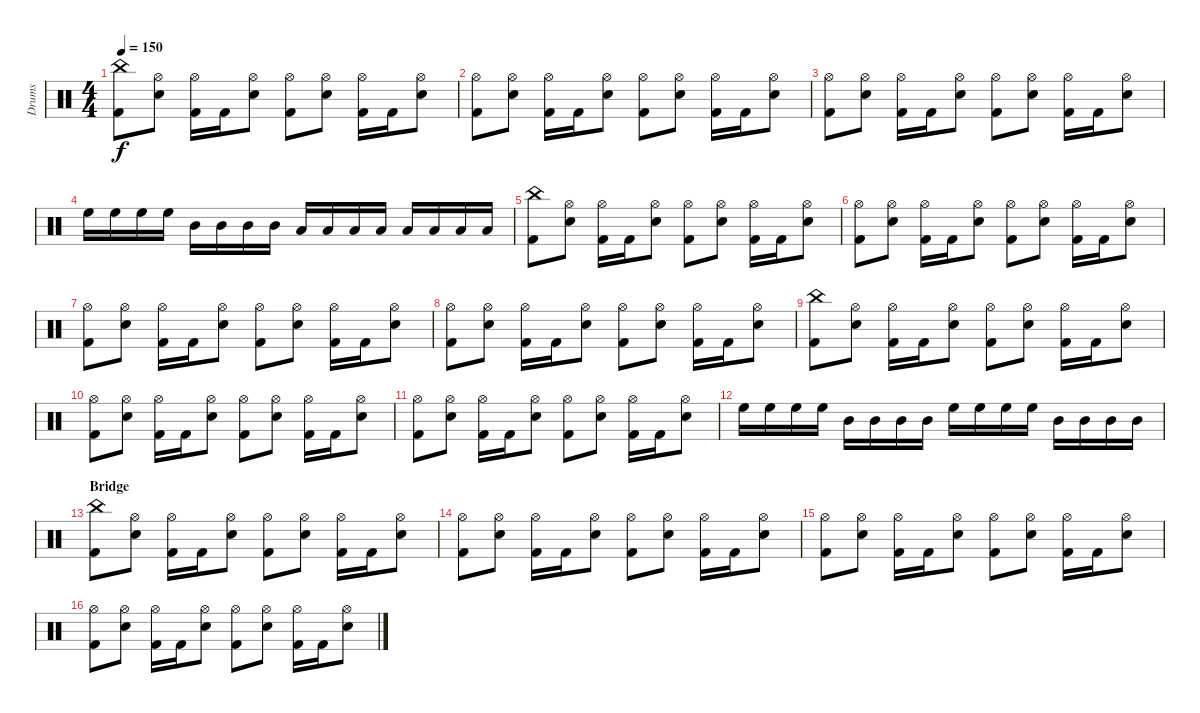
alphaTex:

\track ("Drums" "Drums") {instrument percussion}
\staff {score}
\articulation defaults
\ts (4 4)
\tempo 150
\clef neutral
\ks c
("China (hit)" "Kick (hit) 2").8{dy f} ("Hi-Hat (open)" "Snare (hit) 2").8 ("Hi-Hat (open)" "Kick (hit) 2").16 "Kick (hit) 2".16 ("Hi-Hat (open)" "Snare (hit) 2").8 ("Hi-Hat (open)" "Kick (hit) 2").8 ("Hi-Hat (open)" "Snare (hit) 2").8 ("Hi-Hat (open)" "Kick (hit) 2").16 "Kick (hit) 2".16 ("Hi-Hat (open)" "Snare (hit) 2").8 |
("Hi-Hat (open)" "Kick (hit) 2").8 ("Hi-Hat (open)" "Snare (hit) 2").8 ("Hi-Hat (open)" "Kick (hit) 2").16 "Kick (hit) 2".16 ("Hi-Hat (open)" "Snare (hit) 2").8 ("Hi-Hat (open)" "Kick (hit) 2").8 ("Hi-Hat (open)" "Snare (hit) 2").8 ("Hi-Hat (open)" "Kick (hit) 2").16 "Kick (hit) 2".16 ("Hi-Hat (open)" "Snare (hit) 2").8 |
("Hi-Hat (open)" "Kick (hit) 2").8 ("Hi-Hat (open)" "Snare (hit) 2").8 ("Hi-Hat (open)" "Kick (hit) 2").16 "Kick (hit) 2".16 ("Hi-Hat (open)" "Snare (hit) 2").8 ("Hi-Hat (open)" "Kick (hit) 2").8 ("Hi-Hat (open)" "Snare (hit) 2").8 ("Hi-Hat (open)" "Kick (hit) 2").16 "Kick (hit) 2".16 ("Hi-Hat (open)" "Snare (hit) 2").8 |
"High Floor Tom (hit)".16 "High Floor Tom (hit)".16 "High Floor Tom (hit)".16 "High Floor Tom (hit)".16 "Mid Tom (hit)".16 "Mid Tom (hit)".16 "Mid Tom (hit)".16 "Mid Tom (hit)".16 "Low Tom (hit)".16 "Low Tom (hit)".16 "Low Tom (hit)".16 "Low Tom (hit)".16 "Low Floor Tom (hit)".16 "Low Floor Tom (hit)".16 "Low Floor Tom (hit)".16 "Low Floor Tom (hit)".16 |
("China (hit)" "Kick (hit) 2").8 ("Hi-Hat (open)" "Snare (hit) 2").8 ("Hi-Hat (open)" "Kick (hit) 2").16 "Kick (hit) 2".16 ("Hi-Hat (open)" "Snare (hit) 2").8 ("Hi-Hat (open)" "Kick (hit) 2").8 ("Hi-Hat (open)" "Snare (hit) 2").8 ("Hi-Hat (open)" "Kick (hit) 2").16 "Kick (hit) 2".16 ("Hi-Hat (open)" "Snare (hit) 2").8 |
("Hi-Hat (open)" "Kick (hit) 2").8 ("Hi-Hat (open)" "Snare (hit) 2").8 ("Hi-Hat (open)" "Kick (hit) 2").16 "Kick (hit) 2".16 ("Hi-Hat (open)" "Snare (hit) 2").8 ("Hi-Hat (open)" "Kick (hit) 2").8 ("Hi-Hat (open)" "Snare (hit) 2").8 ("Hi-Hat (open)" "Kick (hit) 2").16 "Kick (hit) 2".16 ("Hi-Hat (open)" "Snare (hit) 2").8 |
("Hi-Hat (open)" "Kick (hit) 2").8 ("Hi-Hat (open)" "Snare (hit) 2").8 ("Hi-Hat (open)" "Kick (hit) 2").16 "Kick (hit) 2".16 ("Hi-Hat (open)" "Snare (hit) 2").8 ("Hi-Hat (open)" "Kick (hit) 2").8 ("Hi-Hat (open)" "Snare (hit) 2").8 ("Hi-Hat (open)" "Kick (hit) 2").16 "Kick (hit) 2".16 ("Hi-Hat (open)" "Snare (hit) 2").8 |
("Hi-Hat (open)" "Kick (hit) 2").8 ("Hi-Hat (open)" "Snare (hit) 2").8 ("Hi-Hat (open)" "Kick (hit) 2").16 "Kick (hit) 2".16 ("Hi-Hat (open)" "Snare (hit) 2").8 ("Hi-Hat (open)" "Kick (hit) 2").8 ("Hi-Hat (open)" "Snare (hit) 2").8 ("Hi-Hat (open)" "Kick (hit) 2").16 "Kick (hit) 2".16 ("Hi-Hat (open)" "Snare (hit) 2").8 |
("China (hit)" "Kick (hit) 2").8 ("Hi-Hat (open)" "Snare (hit) 2").8 ("Hi-Hat (open)" "Kick (hit) 2").16 "Kick (hit) 2".16 ("Hi-Hat (open)" "Snare (hit) 2").8 ("Hi-Hat (open)" "Kick (hit) 2").8 ("Hi-Hat (open)" "Snare (hit) 2").8 ("Hi-Hat (open)" "Kick (hit) 2").16 "Kick (hit) 2".16 ("Hi-Hat (open)" "Snare (hit) 2").8 |
("Hi-Hat (open)" "Kick (hit) 2").8 ("Hi-Hat (open)" "Snare (hit) 2").8 ("Hi-Hat (open)" "Kick (hit) 2").16 "Kick (hit) 2".16 ("Hi-Hat (open)" "Snare (hit) 2").8 ("Hi-Hat (open)" "Kick (hit) 2").8 ("Hi-Hat (open)" "Snare (hit) 2").8 ("Hi-Hat (open)" "Kick (hit) 2").16 "Kick (hit) 2".16 ("Hi-Hat (open)" "Snare (hit) 2").8 |
("Hi-Hat (open)" "Kick (hit) 2").8 ("Hi-Hat (open)" "Snare (hit) 2").8 ("Hi-Hat (open)" "Kick (hit) 2").16 "Kick (hit) 2".16 ("Hi-Hat (open)" "Snare (hit) 2").8 ("Hi-Hat (open)" "Kick (hit) 2").8 ("Hi-Hat (open)" "Snare (hit) 2").8 ("Hi-Hat (open)" "Kick (hit) 2").16 "Kick (hit) 2".16 ("Hi-Hat (open)" "Snare (hit) 2").8 |
"High Floor Tom (hit)".16 "High Floor Tom (hit)".16 "High Floor Tom (hit)".16 "High Floor Tom (hit)".16 "Mid Tom (hit)".16 "Mid Tom (hit)".16 "Mid Tom (hit)".16 "Mid Tom (hit)".16 "High Floor Tom (hit)".16 "High Floor Tom (hit)".16 "High Floor Tom (hit)".16 "High Floor Tom (hit)".16 "Mid Tom (hit)".16 "Mid Tom (hit)".16 "Mid Tom (hit)".16 "Mid Tom (hit)".16 |
\section ("" "Bridge")
("China (hit)" "Kick (hit) 2").8 ("Hi-Hat (open)" "Snare (hit) 2").8 ("Hi-Hat (open)" "Kick (hit) 2").16 "Kick (hit) 2".16 ("Hi-Hat (open)" "Snare (hit) 2").8 ("Hi-Hat (open)" "Kick (hit) 2").8 ("Hi-Hat (open)" "Snare (hit) 2").8 ("Hi-Hat (open)" "Kick (hit) 2").16 "Kick (hit) 2".16 ("Hi-Hat (open)" "Snare (hit) 2").8 |
("Hi-Hat (open)" "Kick (hit) 2").8 ("Hi-Hat (open)" "Snare (hit) 2").8 ("Hi-Hat (open)" "Kick (hit) 2").16 "Kick (hit) 2".16 ("Hi-Hat (open)" "Snare (hit) 2").8 ("Hi-Hat (open)" "Kick (hit) 2").8 ("Hi-Hat (open)" "Snare (hit) 2").8 ("Hi-Hat (open)" "Kick (hit) 2").16 "Kick (hit) 2".16 ("Hi-Hat (open)" "Snare (hit) 2").8 |
("Hi-Hat (open)" "Kick (hit) 2").8 ("Hi-Hat (open)" "Snare (hit) 2").8 ("Hi-Hat (open)" "Kick (hit) 2").16 "Kick (hit) 2".16 ("Hi-Hat (open)" "Snare (hit) 2").8 ("Hi-Hat (open)" "Kick (hit) 2").8 ("Hi-Hat (open)" "Snare (hit) 2").8 ("Hi-Hat (open)" "Kick (hit) 2").16 "Kick (hit) 2".16 ("Hi-Hat (open)" "Snare (hit) 2").8 |
("Hi-Hat (open)" "Kick (hit) 2").8 ("Hi-Hat (open)" "Snare (hit) 2").8 ("Hi-Hat (open)" "Kick (hit) 2").16 "Kick (hit) 2".16 ("Hi-Hat (open)" "Snare (hit) 2").8 ("Hi-Hat (open)" "Kick (hit) 2").8 ("Hi-Hat (open)" "Snare (hit) 2").8 ("Hi-Hat (open)" "Kick (hit) 2").16 "Kick (hit) 2".16 ("Hi-Hat (open)" "Snare (hit) 2").8
